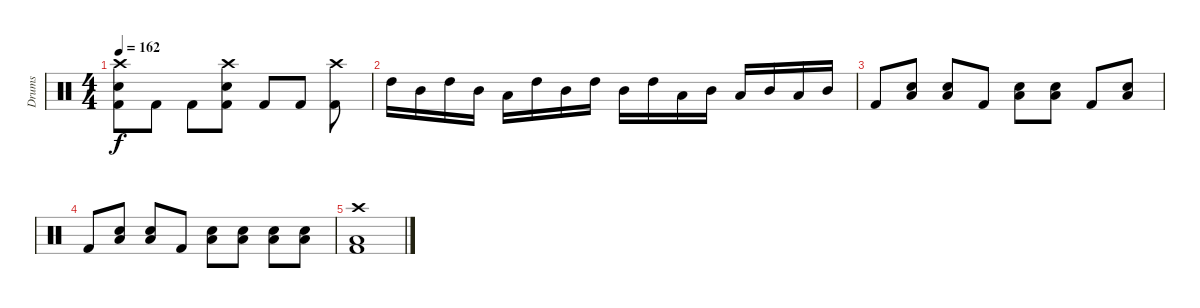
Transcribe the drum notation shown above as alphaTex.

\track ("Drums" "Drums") {instrument percussion}
\staff {score}
\articulation defaults
\ts (4 4)
\tempo 162
\clef neutral
\ks c
("Kick (hit) 2" "Electric Snare (hit)" "Crash high (hit)").8{dy f} "Kick (hit) 2".8 "Kick (hit) 2".8 ("Kick (hit) 2" "Electric Snare (hit)" "Crash high (hit)").8 "Kick (hit) 2".8 "Kick (hit) 2".8 ("Kick (hit) 2" "Crash high (hit)").8 |
"High Tom (hit)".16 "Mid Tom (hit)".16 "High Tom (hit)".16 "Mid Tom (hit)".16 "Low Tom (hit)".16 "High Tom (hit)".16 "Mid Tom (hit)".16 "High Tom (hit)".16 "Mid Tom (hit)".16 "High Tom (hit)".16 "Low Tom (hit)".16 "Mid Tom (hit)".16 "Low Tom (hit)".16 "Mid Tom (hit)".16 "Low Tom (hit)".16 "Mid Tom (hit)".16 |
"Kick (hit) 2".8 ("Low Tom (hit)" "Electric Snare (hit)").8 ("Low Tom (hit)" "Electric Snare (hit)").8 "Kick (hit) 2".8 ("Low Tom (hit)" "Electric Snare (hit)").8 ("Low Tom (hit)" "Electric Snare (hit)").8 "Kick (hit) 2".8 ("Low Tom (hit)" "Electric Snare (hit)").8 |
"Kick (hit) 2".8 ("Low Tom (hit)" "Electric Snare (hit)").8 ("Low Tom (hit)" "Electric Snare (hit)").8 "Kick (hit) 2".8 ("Low Tom (hit)" "Electric Snare (hit)").8 ("Low Tom (hit)" "Electric Snare (hit)").8 ("Electric Snare (hit)" "Low Tom (hit)").8 ("Low Tom (hit)" "Electric Snare (hit)").8 |
("Kick (hit) 2" "Low Tom (hit)" "Crash high (hit)").1
